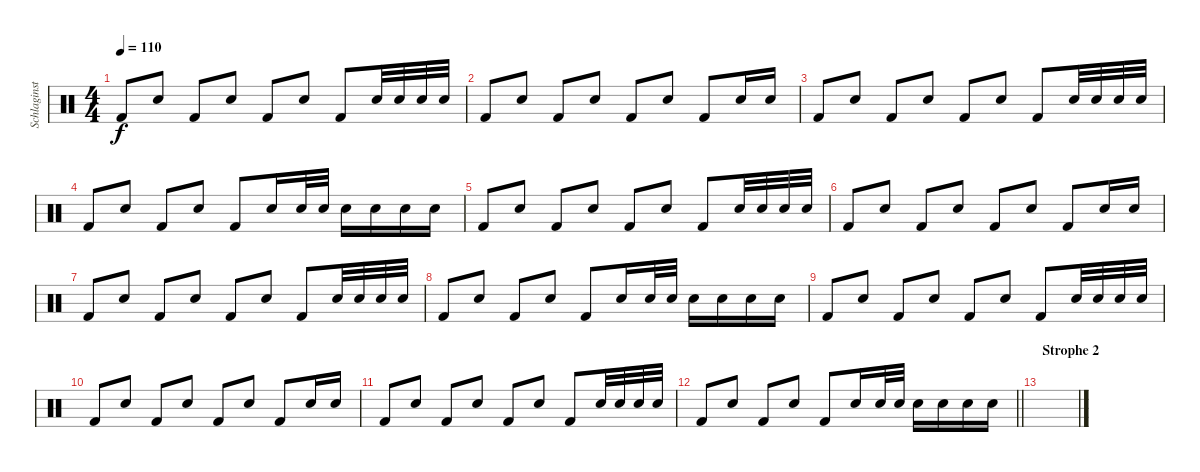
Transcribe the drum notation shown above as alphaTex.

\track ("Schlaginstrumente - Auswahl" "Schlaginst") {instrument percussion}
\staff {score}
\articulation defaults
\ts (4 4)
\tempo 110
\clef neutral
\ks c "Kick (hit) 2".8{dy f} "Electric Snare (hit)".8 "Kick (hit) 2".8 "Electric Snare (hit)".8 "Kick (hit) 2".8 "Electric Snare (hit)".8 "Kick (hit) 2".8 "Electric Snare (hit)".32 "Electric Snare (hit)".32 "Electric Snare (hit)".32 "Electric Snare (hit)".32
|
"Kick (hit) 2".8 "Electric Snare (hit)".8 "Kick (hit) 2".8 "Electric Snare (hit)".8 "Kick (hit) 2".8 "Electric Snare (hit)".8 "Kick (hit) 2".8 "Electric Snare (hit)".16 "Electric Snare (hit)".16 |
"Kick (hit) 2".8 "Electric Snare (hit)".8 "Kick (hit) 2".8 "Electric Snare (hit)".8 "Kick (hit) 2".8 "Electric Snare (hit)".8 "Kick (hit) 2".8 "Electric Snare (hit)".32 "Electric Snare (hit)".32 "Electric Snare (hit)".32 "Electric Snare (hit)".32 |
"Kick (hit) 2".8 "Electric Snare (hit)".8 "Kick (hit) 2".8 "Electric Snare (hit)".8 "Kick (hit) 2".8 "Electric Snare (hit)".16 "Electric Snare (hit)".32 "Electric Snare (hit)".32 "Electric Snare (hit)".16 "Electric Snare (hit)".16 "Electric Snare (hit)".16 "Electric Snare (hit)".16 |
"Kick (hit) 2".8 "Electric Snare (hit)".8 "Kick (hit) 2".8 "Electric Snare (hit)".8 "Kick (hit) 2".8 "Electric Snare (hit)".8 "Kick (hit) 2".8 "Electric Snare (hit)".32 "Electric Snare (hit)".32 "Electric Snare (hit)".32 "Electric Snare (hit)".32 |
"Kick (hit) 2".8 "Electric Snare (hit)".8 "Kick (hit) 2".8 "Electric Snare (hit)".8 "Kick (hit) 2".8 "Electric Snare (hit)".8 "Kick (hit) 2".8 "Electric Snare (hit)".16 "Electric Snare (hit)".16 |
"Kick (hit) 2".8 "Electric Snare (hit)".8 "Kick (hit) 2".8 "Electric Snare (hit)".8 "Kick (hit) 2".8 "Electric Snare (hit)".8 "Kick (hit) 2".8 "Electric Snare (hit)".32 "Electric Snare (hit)".32 "Electric Snare (hit)".32 "Electric Snare (hit)".32 |
"Kick (hit) 2".8 "Electric Snare (hit)".8 "Kick (hit) 2".8 "Electric Snare (hit)".8 "Kick (hit) 2".8 "Electric Snare (hit)".16 "Electric Snare (hit)".32 "Electric Snare (hit)".32 "Electric Snare (hit)".16 "Electric Snare (hit)".16 "Electric Snare (hit)".16 "Electric Snare (hit)".16 |
"Kick (hit) 2".8 "Electric Snare (hit)".8 "Kick (hit) 2".8 "Electric Snare (hit)".8 "Kick (hit) 2".8 "Electric Snare (hit)".8 "Kick (hit) 2".8 "Electric Snare (hit)".32 "Electric Snare (hit)".32 "Electric Snare (hit)".32 "Electric Snare (hit)".32 |
"Kick (hit) 2".8 "Electric Snare (hit)".8 "Kick (hit) 2".8 "Electric Snare (hit)".8 "Kick (hit) 2".8 "Electric Snare (hit)".8 "Kick (hit) 2".8 "Electric Snare (hit)".16 "Electric Snare (hit)".16 |
"Kick (hit) 2".8 "Electric Snare (hit)".8 "Kick (hit) 2".8 "Electric Snare (hit)".8 "Kick (hit) 2".8 "Electric Snare (hit)".8 "Kick (hit) 2".8 "Electric Snare (hit)".32 "Electric Snare (hit)".32 "Electric Snare (hit)".32 "Electric Snare (hit)".32 |
\barLineRight lightlight "Kick (hit) 2".8 "Electric Snare (hit)".8 "Kick (hit) 2".8 "Electric Snare (hit)".8 "Kick (hit) 2".8 "Electric Snare (hit)".16 "Electric Snare (hit)".32 "Electric Snare (hit)".32 "Electric Snare (hit)".16 "Electric Snare (hit)".16 "Electric Snare (hit)".16 "Electric Snare (hit)".16
|
\section ("" "Strophe 2")
